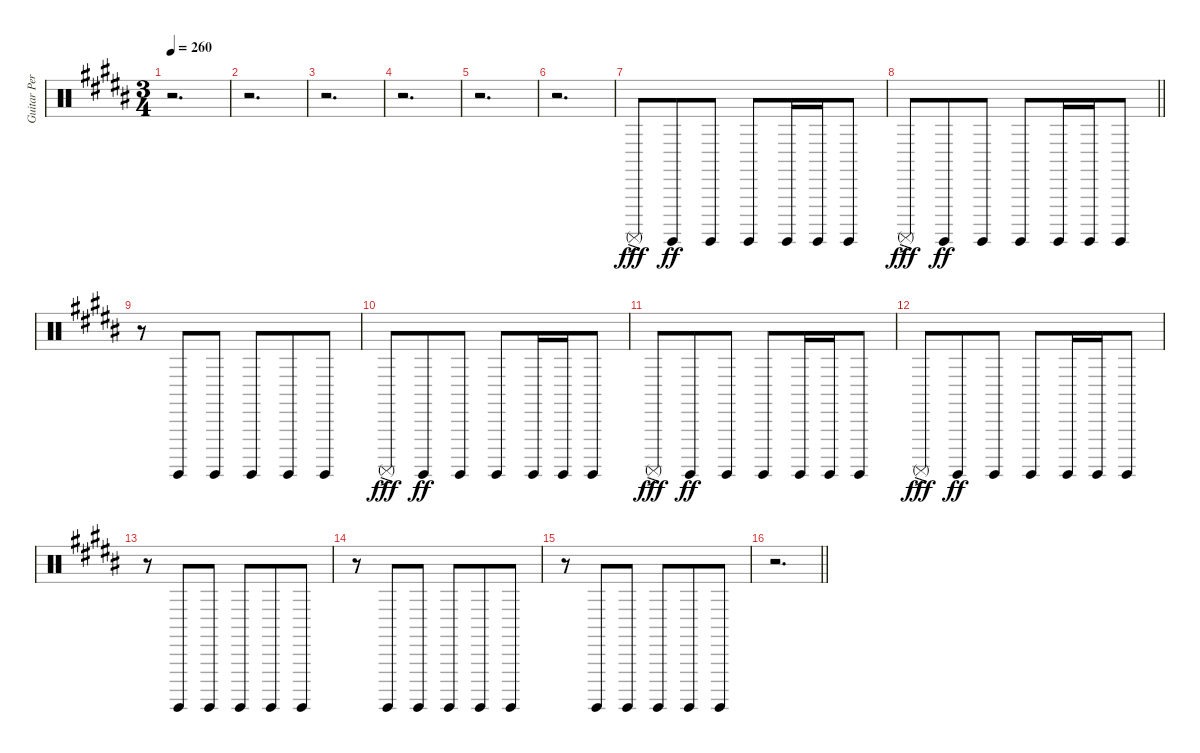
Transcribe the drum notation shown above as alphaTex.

\track ("Guitar Percussion Noises" "Guitar Per") {instrument percussion}
\staff {score}
\articulation defaults
\ts (3 4)
\tempo 260
\clef neutral
\ks b
r.2{d dy ff} |
r.2{d} |
r.2{d} |
r.2{d} |
r.2{d} |
r.2{d} |
"Surdo (mute)"{ac}.8{dy fff} "Surdo (hit)".8{dy ff beam merge} "Surdo (hit)".8{beam split} "Surdo (hit)".8{beam merge} "Surdo (hit)".16{beam merge} "Surdo (hit)".16 "Surdo (hit)".8 |
\barLineRight lightlight "Surdo (mute)"{ac}.8{dy fff} "Surdo (hit)".8{dy ff beam merge} "Surdo (hit)".8{beam split} "Surdo (hit)".8{beam merge} "Surdo (hit)".16{beam merge} "Surdo (hit)".16 "Surdo (hit)".8
|
r.8 "Surdo (hit)".8{beam merge} "Surdo (hit)".8{beam split} "Surdo (hit)".8{beam merge} "Surdo (hit)".8 "Surdo (hit)".8 |
"Surdo (mute)"{ac}.8{dy fff} "Surdo (hit)".8{dy ff beam merge} "Surdo (hit)".8{beam split} "Surdo (hit)".8{beam merge} "Surdo (hit)".16{beam merge} "Surdo (hit)".16 "Surdo (hit)".8 |
"Surdo (mute)"{ac}.8{dy fff} "Surdo (hit)".8{dy ff beam merge} "Surdo (hit)".8{beam split} "Surdo (hit)".8{beam merge} "Surdo (hit)".16{beam merge} "Surdo (hit)".16 "Surdo (hit)".8 |
"Surdo (mute)"{ac}.8{dy fff} "Surdo (hit)".8{dy ff beam merge} "Surdo (hit)".8{beam split} "Surdo (hit)".8{beam merge} "Surdo (hit)".16{beam merge} "Surdo (hit)".16 "Surdo (hit)".8 |
r.8 "Surdo (hit)".8{beam merge} "Surdo (hit)".8{beam split} "Surdo (hit)".8{beam merge} "Surdo (hit)".8 "Surdo (hit)".8 |
r.8 "Surdo (hit)".8{beam merge} "Surdo (hit)".8{beam split} "Surdo (hit)".8{beam merge} "Surdo (hit)".8 "Surdo (hit)".8 |
r.8 "Surdo (hit)".8{beam merge} "Surdo (hit)".8{beam split} "Surdo (hit)".8{beam merge} "Surdo (hit)".8 "Surdo (hit)".8 |
\barLineRight lightlight
r.2{d}
